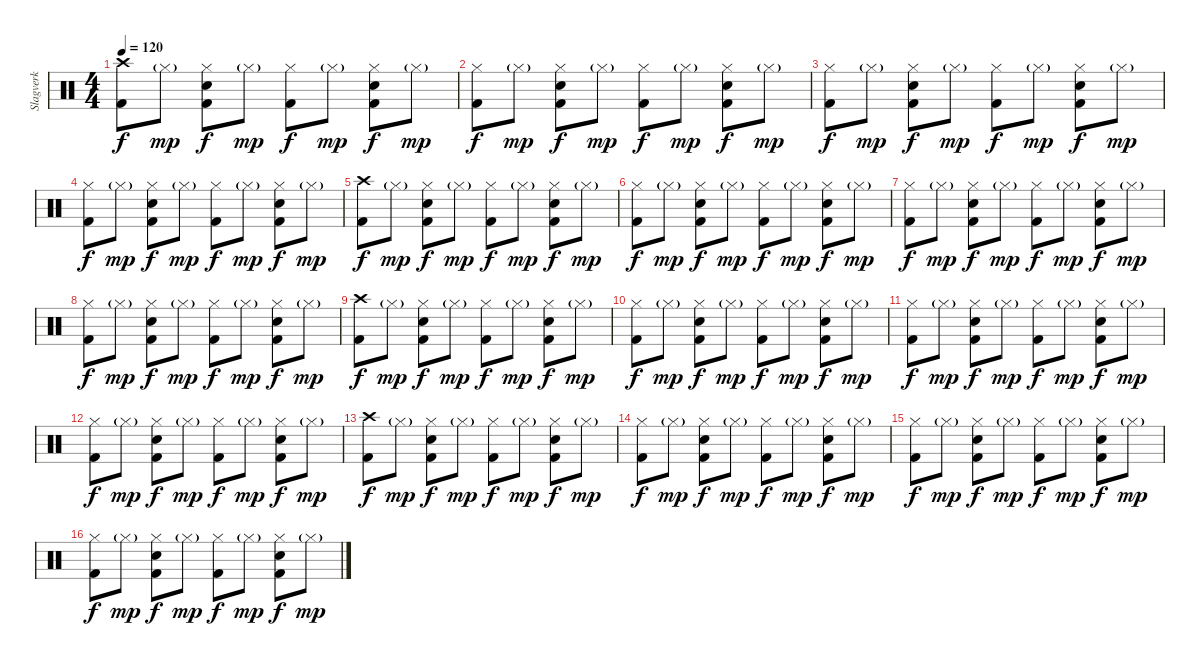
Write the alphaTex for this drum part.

\track ("Slagverk" "Slagverk") {instrument percussion}
\staff {score}
\articulation defaults
\ts (4 4)
\tempo 120
\clef neutral
\ks c
("Kick (hit) 2" "Crash high (hit)").8{dy f} "Hi-Hat (closed)"{g}.8{dy mp} ("Kick (hit) 2" "Hi-Hat (closed)" "Snare (hit) 2").8{dy f} "Hi-Hat (closed)"{g}.8{dy mp} ("Kick (hit) 2" "Hi-Hat (closed)").8{dy f} "Hi-Hat (closed)"{g}.8{dy mp} ("Kick (hit) 2" "Hi-Hat (closed)" "Snare (hit) 2").8{dy f} "Hi-Hat (closed)"{g}.8{dy mp} |
("Kick (hit) 2" "Hi-Hat (closed)").8{dy f} "Hi-Hat (closed)"{g}.8{dy mp} ("Kick (hit) 2" "Hi-Hat (closed)" "Snare (hit) 2").8{dy f} "Hi-Hat (closed)"{g}.8{dy mp} ("Kick (hit) 2" "Hi-Hat (closed)").8{dy f} "Hi-Hat (closed)"{g}.8{dy mp} ("Kick (hit) 2" "Hi-Hat (closed)" "Snare (hit) 2").8{dy f} "Hi-Hat (closed)"{g}.8{dy mp} |
("Kick (hit) 2" "Hi-Hat (closed)").8{dy f} "Hi-Hat (closed)"{g}.8{dy mp} ("Kick (hit) 2" "Hi-Hat (closed)" "Snare (hit) 2").8{dy f} "Hi-Hat (closed)"{g}.8{dy mp} ("Kick (hit) 2" "Hi-Hat (closed)").8{dy f} "Hi-Hat (closed)"{g}.8{dy mp} ("Kick (hit) 2" "Hi-Hat (closed)" "Snare (hit) 2").8{dy f} "Hi-Hat (closed)"{g}.8{dy mp} |
("Kick (hit) 2" "Hi-Hat (closed)").8{dy f} "Hi-Hat (closed)"{g}.8{dy mp} ("Kick (hit) 2" "Hi-Hat (closed)" "Snare (hit) 2").8{dy f} "Hi-Hat (closed)"{g}.8{dy mp} ("Kick (hit) 2" "Hi-Hat (closed)").8{dy f} "Hi-Hat (closed)"{g}.8{dy mp} ("Kick (hit) 2" "Hi-Hat (closed)" "Snare (hit) 2").8{dy f} "Hi-Hat (closed)"{g}.8{dy mp} |
("Kick (hit) 2" "Crash high (hit)").8{dy f} "Hi-Hat (closed)"{g}.8{dy mp} ("Kick (hit) 2" "Hi-Hat (closed)" "Snare (hit) 2").8{dy f} "Hi-Hat (closed)"{g}.8{dy mp} ("Kick (hit) 2" "Hi-Hat (closed)").8{dy f} "Hi-Hat (closed)"{g}.8{dy mp} ("Kick (hit) 2" "Hi-Hat (closed)" "Snare (hit) 2").8{dy f} "Hi-Hat (closed)"{g}.8{dy mp} |
("Kick (hit) 2" "Hi-Hat (closed)").8{dy f} "Hi-Hat (closed)"{g}.8{dy mp} ("Kick (hit) 2" "Hi-Hat (closed)" "Snare (hit) 2").8{dy f} "Hi-Hat (closed)"{g}.8{dy mp} ("Kick (hit) 2" "Hi-Hat (closed)").8{dy f} "Hi-Hat (closed)"{g}.8{dy mp} ("Kick (hit) 2" "Hi-Hat (closed)" "Snare (hit) 2").8{dy f} "Hi-Hat (closed)"{g}.8{dy mp} |
("Kick (hit) 2" "Hi-Hat (closed)").8{dy f} "Hi-Hat (closed)"{g}.8{dy mp} ("Kick (hit) 2" "Hi-Hat (closed)" "Snare (hit) 2").8{dy f} "Hi-Hat (closed)"{g}.8{dy mp} ("Kick (hit) 2" "Hi-Hat (closed)").8{dy f} "Hi-Hat (closed)"{g}.8{dy mp} ("Kick (hit) 2" "Hi-Hat (closed)" "Snare (hit) 2").8{dy f} "Hi-Hat (closed)"{g}.8{dy mp} |
("Kick (hit) 2" "Hi-Hat (closed)").8{dy f} "Hi-Hat (closed)"{g}.8{dy mp} ("Kick (hit) 2" "Hi-Hat (closed)" "Snare (hit) 2").8{dy f} "Hi-Hat (closed)"{g}.8{dy mp} ("Kick (hit) 2" "Hi-Hat (closed)").8{dy f} "Hi-Hat (closed)"{g}.8{dy mp} ("Kick (hit) 2" "Hi-Hat (closed)" "Snare (hit) 2").8{dy f} "Hi-Hat (closed)"{g}.8{dy mp} |
("Kick (hit) 2" "Crash high (hit)").8{dy f} "Hi-Hat (closed)"{g}.8{dy mp} ("Kick (hit) 2" "Hi-Hat (closed)" "Snare (hit) 2").8{dy f} "Hi-Hat (closed)"{g}.8{dy mp} ("Kick (hit) 2" "Hi-Hat (closed)").8{dy f} "Hi-Hat (closed)"{g}.8{dy mp} ("Kick (hit) 2" "Hi-Hat (closed)" "Snare (hit) 2").8{dy f} "Hi-Hat (closed)"{g}.8{dy mp} |
("Kick (hit) 2" "Hi-Hat (closed)").8{dy f} "Hi-Hat (closed)"{g}.8{dy mp} ("Kick (hit) 2" "Hi-Hat (closed)" "Snare (hit) 2").8{dy f} "Hi-Hat (closed)"{g}.8{dy mp} ("Kick (hit) 2" "Hi-Hat (closed)").8{dy f} "Hi-Hat (closed)"{g}.8{dy mp} ("Kick (hit) 2" "Hi-Hat (closed)" "Snare (hit) 2").8{dy f} "Hi-Hat (closed)"{g}.8{dy mp} |
("Kick (hit) 2" "Hi-Hat (closed)").8{dy f} "Hi-Hat (closed)"{g}.8{dy mp} ("Kick (hit) 2" "Hi-Hat (closed)" "Snare (hit) 2").8{dy f} "Hi-Hat (closed)"{g}.8{dy mp} ("Kick (hit) 2" "Hi-Hat (closed)").8{dy f} "Hi-Hat (closed)"{g}.8{dy mp} ("Kick (hit) 2" "Hi-Hat (closed)" "Snare (hit) 2").8{dy f} "Hi-Hat (closed)"{g}.8{dy mp} |
("Kick (hit) 2" "Hi-Hat (closed)").8{dy f} "Hi-Hat (closed)"{g}.8{dy mp} ("Kick (hit) 2" "Hi-Hat (closed)" "Snare (hit) 2").8{dy f} "Hi-Hat (closed)"{g}.8{dy mp} ("Kick (hit) 2" "Hi-Hat (closed)").8{dy f} "Hi-Hat (closed)"{g}.8{dy mp} ("Kick (hit) 2" "Hi-Hat (closed)" "Snare (hit) 2").8{dy f} "Hi-Hat (closed)"{g}.8{dy mp} |
("Kick (hit) 2" "Crash high (hit)").8{dy f} "Hi-Hat (closed)"{g}.8{dy mp} ("Kick (hit) 2" "Hi-Hat (closed)" "Snare (hit) 2").8{dy f} "Hi-Hat (closed)"{g}.8{dy mp} ("Kick (hit) 2" "Hi-Hat (closed)").8{dy f} "Hi-Hat (closed)"{g}.8{dy mp} ("Kick (hit) 2" "Hi-Hat (closed)" "Snare (hit) 2").8{dy f} "Hi-Hat (closed)"{g}.8{dy mp} |
("Kick (hit) 2" "Hi-Hat (closed)").8{dy f} "Hi-Hat (closed)"{g}.8{dy mp} ("Kick (hit) 2" "Hi-Hat (closed)" "Snare (hit) 2").8{dy f} "Hi-Hat (closed)"{g}.8{dy mp} ("Kick (hit) 2" "Hi-Hat (closed)").8{dy f} "Hi-Hat (closed)"{g}.8{dy mp} ("Kick (hit) 2" "Hi-Hat (closed)" "Snare (hit) 2").8{dy f} "Hi-Hat (closed)"{g}.8{dy mp} |
("Kick (hit) 2" "Hi-Hat (closed)").8{dy f} "Hi-Hat (closed)"{g}.8{dy mp} ("Kick (hit) 2" "Hi-Hat (closed)" "Snare (hit) 2").8{dy f} "Hi-Hat (closed)"{g}.8{dy mp} ("Kick (hit) 2" "Hi-Hat (closed)").8{dy f} "Hi-Hat (closed)"{g}.8{dy mp} ("Kick (hit) 2" "Hi-Hat (closed)" "Snare (hit) 2").8{dy f} "Hi-Hat (closed)"{g}.8{dy mp} |
("Kick (hit) 2" "Hi-Hat (closed)").8{dy f} "Hi-Hat (closed)"{g}.8{dy mp} ("Kick (hit) 2" "Hi-Hat (closed)" "Snare (hit) 2").8{dy f} "Hi-Hat (closed)"{g}.8{dy mp} ("Kick (hit) 2" "Hi-Hat (closed)").8{dy f} "Hi-Hat (closed)"{g}.8{dy mp} ("Kick (hit) 2" "Hi-Hat (closed)" "Snare (hit) 2").8{dy f} "Hi-Hat (closed)"{g}.8{dy mp}
